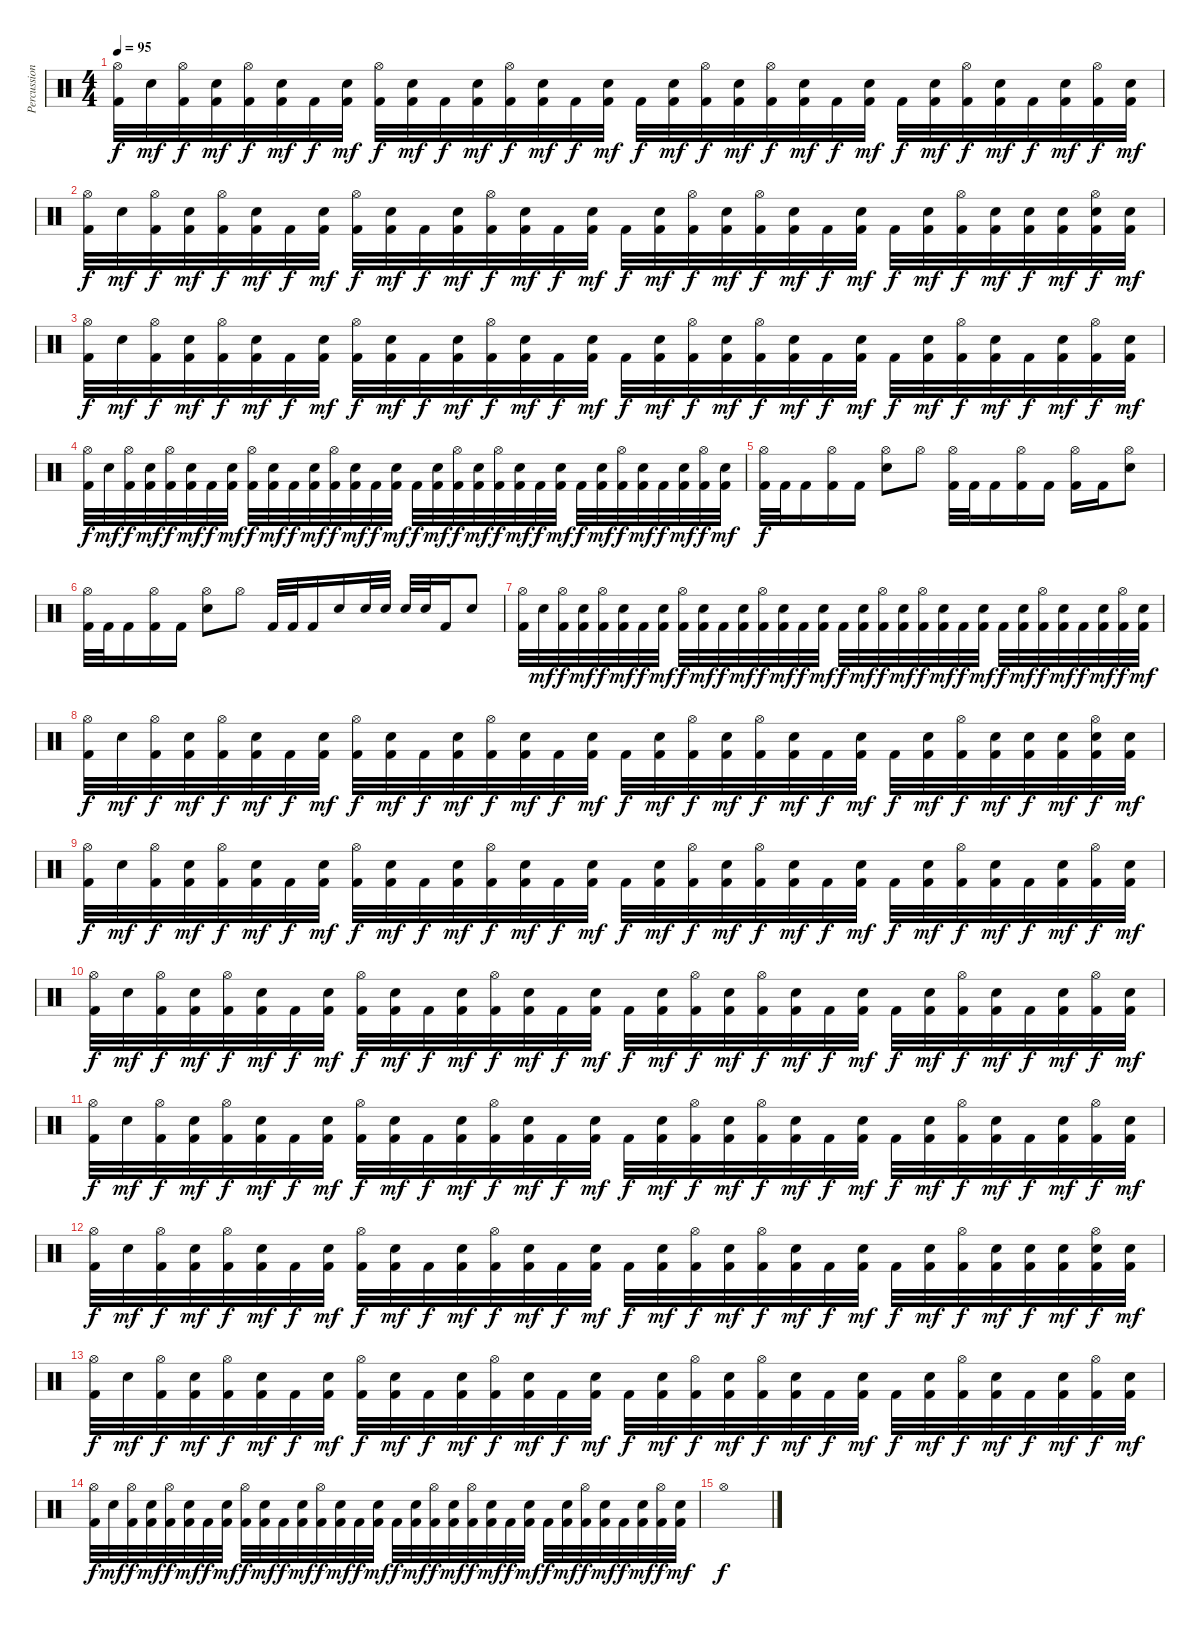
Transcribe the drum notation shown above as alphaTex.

\track ("Percussion" "Percussion") {instrument percussion}
\staff {score}
\articulation defaults
\ts (4 4)
\tempo 95
\clef neutral
\ks c
("Hi-Hat (open)" "Kick (hit) 2").32{dy f} "Electric Snare (hit)".32{dy mf} ("Hi-Hat (open)" "Kick (hit) 2").32{dy f} ("Electric Snare (hit)" "Kick (hit) 2").32{dy mf} ("Hi-Hat (open)" "Kick (hit) 2").32{dy f} ("Electric Snare (hit)" "Kick (hit) 2").32{dy mf} "Kick (hit) 2".32{dy f} ("Electric Snare (hit)" "Kick (hit) 2").32{dy mf} ("Hi-Hat (open)" "Kick (hit) 2").32{dy f} ("Electric Snare (hit)" "Kick (hit) 2").32{dy mf} "Kick (hit) 2".32{dy f} ("Electric Snare (hit)" "Kick (hit) 2").32{dy mf} ("Hi-Hat (open)" "Kick (hit) 2").32{dy f} ("Electric Snare (hit)" "Kick (hit) 2").32{dy mf} "Kick (hit) 2".32{dy f} ("Electric Snare (hit)" "Kick (hit) 2").32{dy mf} "Kick (hit) 2".32{dy f} ("Electric Snare (hit)" "Kick (hit) 2").32{dy mf} ("Hi-Hat (open)" "Kick (hit) 2").32{dy f} ("Electric Snare (hit)" "Kick (hit) 2").32{dy mf} ("Hi-Hat (open)" "Kick (hit) 2").32{dy f} ("Electric Snare (hit)" "Kick (hit) 2").32{dy mf} "Kick (hit) 2".32{dy f} ("Electric Snare (hit)" "Kick (hit) 2").32{dy mf} "Kick (hit) 2".32{dy f} ("Electric Snare (hit)" "Kick (hit) 2").32{dy mf} ("Hi-Hat (open)" "Kick (hit) 2").32{dy f} ("Electric Snare (hit)" "Kick (hit) 2").32{dy mf} "Kick (hit) 2".32{dy f} ("Electric Snare (hit)" "Kick (hit) 2").32{dy mf} ("Hi-Hat (open)" "Kick (hit) 2").32{dy f} ("Electric Snare (hit)" "Kick (hit) 2").32{dy mf} |
("Hi-Hat (open)" "Kick (hit) 2").32{dy f} "Electric Snare (hit)".32{dy mf} ("Hi-Hat (open)" "Kick (hit) 2").32{dy f} ("Electric Snare (hit)" "Kick (hit) 2").32{dy mf} ("Hi-Hat (open)" "Kick (hit) 2").32{dy f} ("Electric Snare (hit)" "Kick (hit) 2").32{dy mf} "Kick (hit) 2".32{dy f} ("Electric Snare (hit)" "Kick (hit) 2").32{dy mf} ("Hi-Hat (open)" "Kick (hit) 2").32{dy f} ("Electric Snare (hit)" "Kick (hit) 2").32{dy mf} "Kick (hit) 2".32{dy f} ("Electric Snare (hit)" "Kick (hit) 2").32{dy mf} ("Hi-Hat (open)" "Kick (hit) 2").32{dy f} ("Electric Snare (hit)" "Kick (hit) 2").32{dy mf} "Kick (hit) 2".32{dy f} ("Electric Snare (hit)" "Kick (hit) 2").32{dy mf} "Kick (hit) 2".32{dy f} ("Electric Snare (hit)" "Kick (hit) 2").32{dy mf} ("Hi-Hat (open)" "Kick (hit) 2").32{dy f} ("Electric Snare (hit)" "Kick (hit) 2").32{dy mf} ("Hi-Hat (open)" "Kick (hit) 2").32{dy f} ("Electric Snare (hit)" "Kick (hit) 2").32{dy mf} "Kick (hit) 2".32{dy f} ("Electric Snare (hit)" "Kick (hit) 2").32{dy mf} "Kick (hit) 2".32{dy f} ("Electric Snare (hit)" "Kick (hit) 2").32{dy mf} ("Hi-Hat (open)" "Kick (hit) 2").32{dy f} ("Electric Snare (hit)" "Kick (hit) 2").32{dy mf} ("Electric Snare (hit)" "Kick (hit) 2").32{dy f} ("Electric Snare (hit)" "Kick (hit) 2").32{dy mf} ("Hi-Hat (open)" "Electric Snare (hit)" "Kick (hit) 2").32{dy f} ("Electric Snare (hit)" "Kick (hit) 2").32{dy mf} |
("Hi-Hat (open)" "Kick (hit) 2").32{dy f} "Electric Snare (hit)".32{dy mf} ("Hi-Hat (open)" "Kick (hit) 2").32{dy f} ("Electric Snare (hit)" "Kick (hit) 2").32{dy mf} ("Hi-Hat (open)" "Kick (hit) 2").32{dy f} ("Electric Snare (hit)" "Kick (hit) 2").32{dy mf} "Kick (hit) 2".32{dy f} ("Electric Snare (hit)" "Kick (hit) 2").32{dy mf} ("Hi-Hat (open)" "Kick (hit) 2").32{dy f} ("Electric Snare (hit)" "Kick (hit) 2").32{dy mf} "Kick (hit) 2".32{dy f} ("Electric Snare (hit)" "Kick (hit) 2").32{dy mf} ("Hi-Hat (open)" "Kick (hit) 2").32{dy f} ("Electric Snare (hit)" "Kick (hit) 2").32{dy mf} "Kick (hit) 2".32{dy f} ("Electric Snare (hit)" "Kick (hit) 2").32{dy mf} "Kick (hit) 2".32{dy f} ("Electric Snare (hit)" "Kick (hit) 2").32{dy mf} ("Hi-Hat (open)" "Kick (hit) 2").32{dy f} ("Electric Snare (hit)" "Kick (hit) 2").32{dy mf} ("Hi-Hat (open)" "Kick (hit) 2").32{dy f} ("Electric Snare (hit)" "Kick (hit) 2").32{dy mf} "Kick (hit) 2".32{dy f} ("Electric Snare (hit)" "Kick (hit) 2").32{dy mf} "Kick (hit) 2".32{dy f} ("Electric Snare (hit)" "Kick (hit) 2").32{dy mf} ("Hi-Hat (open)" "Kick (hit) 2").32{dy f} ("Electric Snare (hit)" "Kick (hit) 2").32{dy mf} "Kick (hit) 2".32{dy f} ("Electric Snare (hit)" "Kick (hit) 2").32{dy mf} ("Hi-Hat (open)" "Kick (hit) 2").32{dy f} ("Electric Snare (hit)" "Kick (hit) 2").32{dy mf} |
("Hi-Hat (open)" "Kick (hit) 2").32{dy f} "Electric Snare (hit)".32{dy mf} ("Hi-Hat (open)" "Kick (hit) 2").32{dy f} ("Electric Snare (hit)" "Kick (hit) 2").32{dy mf} ("Hi-Hat (open)" "Kick (hit) 2").32{dy f} ("Electric Snare (hit)" "Kick (hit) 2").32{dy mf} "Kick (hit) 2".32{dy f} ("Electric Snare (hit)" "Kick (hit) 2").32{dy mf} ("Hi-Hat (open)" "Kick (hit) 2").32{dy f} ("Electric Snare (hit)" "Kick (hit) 2").32{dy mf} "Kick (hit) 2".32{dy f} ("Electric Snare (hit)" "Kick (hit) 2").32{dy mf} ("Hi-Hat (open)" "Kick (hit) 2").32{dy f} ("Electric Snare (hit)" "Kick (hit) 2").32{dy mf} "Kick (hit) 2".32{dy f} ("Electric Snare (hit)" "Kick (hit) 2").32{dy mf} "Kick (hit) 2".32{dy f} ("Electric Snare (hit)" "Kick (hit) 2").32{dy mf} ("Hi-Hat (open)" "Kick (hit) 2").32{dy f} ("Electric Snare (hit)" "Kick (hit) 2").32{dy mf} ("Hi-Hat (open)" "Kick (hit) 2").32{dy f} ("Electric Snare (hit)" "Kick (hit) 2").32{dy mf} "Kick (hit) 2".32{dy f} ("Electric Snare (hit)" "Kick (hit) 2").32{dy mf} "Kick (hit) 2".32{dy f} ("Electric Snare (hit)" "Kick (hit) 2").32{dy mf} ("Hi-Hat (open)" "Kick (hit) 2").32{dy f} ("Electric Snare (hit)" "Kick (hit) 2").32{dy mf} "Kick (hit) 2".32{dy f} ("Electric Snare (hit)" "Kick (hit) 2").32{dy mf} ("Hi-Hat (open)" "Kick (hit) 2").32{dy f} ("Electric Snare (hit)" "Kick (hit) 2").32{dy mf} |
("Hi-Hat (open)" "Kick (hit) 2").32{dy f} "Kick (hit) 2".32 "Kick (hit) 2".16 ("Hi-Hat (open)" "Kick (hit) 2").16 "Kick (hit) 2".16 ("Hi-Hat (open)" "Electric Snare (hit)").8 "Hi-Hat (open)".8 ("Hi-Hat (open)" "Kick (hit) 2").32 "Kick (hit) 2".32 "Kick (hit) 2".16 ("Hi-Hat (open)" "Kick (hit) 2").16 "Kick (hit) 2".16 ("Hi-Hat (open)" "Kick (hit) 2").16 "Kick (hit) 2".16 ("Hi-Hat (open)" "Electric Snare (hit)").8 |
("Hi-Hat (open)" "Kick (hit) 2").32 "Kick (hit) 2".32 "Kick (hit) 2".16 ("Hi-Hat (open)" "Kick (hit) 2").16 "Kick (hit) 2".16 ("Hi-Hat (open)" "Electric Snare (hit)").8 "Hi-Hat (open)".8 "Kick (hit) 2".32 "Kick (hit) 2".32 "Kick (hit) 2".16 "Electric Snare (hit)".16 "Electric Snare (hit)".32 "Electric Snare (hit)".32 "Electric Snare (hit)".32 "Electric Snare (hit)".32 "Kick (hit) 2".16 "Electric Snare (hit)".8 |
("Hi-Hat (open)" "Kick (hit) 2").32 "Electric Snare (hit)".32{dy mf} ("Hi-Hat (open)" "Kick (hit) 2").32{dy f} ("Electric Snare (hit)" "Kick (hit) 2").32{dy mf} ("Hi-Hat (open)" "Kick (hit) 2").32{dy f} ("Electric Snare (hit)" "Kick (hit) 2").32{dy mf} "Kick (hit) 2".32{dy f} ("Electric Snare (hit)" "Kick (hit) 2").32{dy mf} ("Hi-Hat (open)" "Kick (hit) 2").32{dy f} ("Electric Snare (hit)" "Kick (hit) 2").32{dy mf} "Kick (hit) 2".32{dy f} ("Electric Snare (hit)" "Kick (hit) 2").32{dy mf} ("Hi-Hat (open)" "Kick (hit) 2").32{dy f} ("Electric Snare (hit)" "Kick (hit) 2").32{dy mf} "Kick (hit) 2".32{dy f} ("Electric Snare (hit)" "Kick (hit) 2").32{dy mf} "Kick (hit) 2".32{dy f} ("Electric Snare (hit)" "Kick (hit) 2").32{dy mf} ("Hi-Hat (open)" "Kick (hit) 2").32{dy f} ("Electric Snare (hit)" "Kick (hit) 2").32{dy mf} ("Hi-Hat (open)" "Kick (hit) 2").32{dy f} ("Electric Snare (hit)" "Kick (hit) 2").32{dy mf} "Kick (hit) 2".32{dy f} ("Electric Snare (hit)" "Kick (hit) 2").32{dy mf} "Kick (hit) 2".32{dy f} ("Electric Snare (hit)" "Kick (hit) 2").32{dy mf} ("Hi-Hat (open)" "Kick (hit) 2").32{dy f} ("Electric Snare (hit)" "Kick (hit) 2").32{dy mf} "Kick (hit) 2".32{dy f} ("Electric Snare (hit)" "Kick (hit) 2").32{dy mf} ("Hi-Hat (open)" "Kick (hit) 2").32{dy f} ("Electric Snare (hit)" "Kick (hit) 2").32{dy mf} |
("Hi-Hat (open)" "Kick (hit) 2").32{dy f} "Electric Snare (hit)".32{dy mf} ("Hi-Hat (open)" "Kick (hit) 2").32{dy f} ("Electric Snare (hit)" "Kick (hit) 2").32{dy mf} ("Hi-Hat (open)" "Kick (hit) 2").32{dy f} ("Electric Snare (hit)" "Kick (hit) 2").32{dy mf} "Kick (hit) 2".32{dy f} ("Electric Snare (hit)" "Kick (hit) 2").32{dy mf} ("Hi-Hat (open)" "Kick (hit) 2").32{dy f} ("Electric Snare (hit)" "Kick (hit) 2").32{dy mf} "Kick (hit) 2".32{dy f} ("Electric Snare (hit)" "Kick (hit) 2").32{dy mf} ("Hi-Hat (open)" "Kick (hit) 2").32{dy f} ("Electric Snare (hit)" "Kick (hit) 2").32{dy mf} "Kick (hit) 2".32{dy f} ("Electric Snare (hit)" "Kick (hit) 2").32{dy mf} "Kick (hit) 2".32{dy f} ("Electric Snare (hit)" "Kick (hit) 2").32{dy mf} ("Hi-Hat (open)" "Kick (hit) 2").32{dy f} ("Electric Snare (hit)" "Kick (hit) 2").32{dy mf} ("Hi-Hat (open)" "Kick (hit) 2").32{dy f} ("Electric Snare (hit)" "Kick (hit) 2").32{dy mf} "Kick (hit) 2".32{dy f} ("Electric Snare (hit)" "Kick (hit) 2").32{dy mf} "Kick (hit) 2".32{dy f} ("Electric Snare (hit)" "Kick (hit) 2").32{dy mf} ("Hi-Hat (open)" "Kick (hit) 2").32{dy f} ("Electric Snare (hit)" "Kick (hit) 2").32{dy mf} ("Electric Snare (hit)" "Kick (hit) 2").32{dy f} ("Electric Snare (hit)" "Kick (hit) 2").32{dy mf} ("Hi-Hat (open)" "Electric Snare (hit)" "Kick (hit) 2").32{dy f} ("Electric Snare (hit)" "Kick (hit) 2").32{dy mf} |
("Hi-Hat (open)" "Kick (hit) 2").32{dy f} "Electric Snare (hit)".32{dy mf} ("Hi-Hat (open)" "Kick (hit) 2").32{dy f} ("Electric Snare (hit)" "Kick (hit) 2").32{dy mf} ("Hi-Hat (open)" "Kick (hit) 2").32{dy f} ("Electric Snare (hit)" "Kick (hit) 2").32{dy mf} "Kick (hit) 2".32{dy f} ("Electric Snare (hit)" "Kick (hit) 2").32{dy mf} ("Hi-Hat (open)" "Kick (hit) 2").32{dy f} ("Electric Snare (hit)" "Kick (hit) 2").32{dy mf} "Kick (hit) 2".32{dy f} ("Electric Snare (hit)" "Kick (hit) 2").32{dy mf} ("Hi-Hat (open)" "Kick (hit) 2").32{dy f} ("Electric Snare (hit)" "Kick (hit) 2").32{dy mf} "Kick (hit) 2".32{dy f} ("Electric Snare (hit)" "Kick (hit) 2").32{dy mf} "Kick (hit) 2".32{dy f} ("Electric Snare (hit)" "Kick (hit) 2").32{dy mf} ("Hi-Hat (open)" "Kick (hit) 2").32{dy f} ("Electric Snare (hit)" "Kick (hit) 2").32{dy mf} ("Hi-Hat (open)" "Kick (hit) 2").32{dy f} ("Electric Snare (hit)" "Kick (hit) 2").32{dy mf} "Kick (hit) 2".32{dy f} ("Electric Snare (hit)" "Kick (hit) 2").32{dy mf} "Kick (hit) 2".32{dy f} ("Electric Snare (hit)" "Kick (hit) 2").32{dy mf} ("Hi-Hat (open)" "Kick (hit) 2").32{dy f} ("Electric Snare (hit)" "Kick (hit) 2").32{dy mf} "Kick (hit) 2".32{dy f} ("Electric Snare (hit)" "Kick (hit) 2").32{dy mf} ("Hi-Hat (open)" "Kick (hit) 2").32{dy f} ("Electric Snare (hit)" "Kick (hit) 2").32{dy mf} |
("Hi-Hat (open)" "Kick (hit) 2").32{dy f} "Electric Snare (hit)".32{dy mf} ("Hi-Hat (open)" "Kick (hit) 2").32{dy f} ("Electric Snare (hit)" "Kick (hit) 2").32{dy mf} ("Hi-Hat (open)" "Kick (hit) 2").32{dy f} ("Electric Snare (hit)" "Kick (hit) 2").32{dy mf} "Kick (hit) 2".32{dy f} ("Electric Snare (hit)" "Kick (hit) 2").32{dy mf} ("Hi-Hat (open)" "Kick (hit) 2").32{dy f} ("Electric Snare (hit)" "Kick (hit) 2").32{dy mf} "Kick (hit) 2".32{dy f} ("Electric Snare (hit)" "Kick (hit) 2").32{dy mf} ("Hi-Hat (open)" "Kick (hit) 2").32{dy f} ("Electric Snare (hit)" "Kick (hit) 2").32{dy mf} "Kick (hit) 2".32{dy f} ("Electric Snare (hit)" "Kick (hit) 2").32{dy mf} "Kick (hit) 2".32{dy f} ("Electric Snare (hit)" "Kick (hit) 2").32{dy mf} ("Hi-Hat (open)" "Kick (hit) 2").32{dy f} ("Electric Snare (hit)" "Kick (hit) 2").32{dy mf} ("Hi-Hat (open)" "Kick (hit) 2").32{dy f} ("Electric Snare (hit)" "Kick (hit) 2").32{dy mf} "Kick (hit) 2".32{dy f} ("Electric Snare (hit)" "Kick (hit) 2").32{dy mf} "Kick (hit) 2".32{dy f} ("Electric Snare (hit)" "Kick (hit) 2").32{dy mf} ("Hi-Hat (open)" "Kick (hit) 2").32{dy f} ("Electric Snare (hit)" "Kick (hit) 2").32{dy mf} "Kick (hit) 2".32{dy f} ("Electric Snare (hit)" "Kick (hit) 2").32{dy mf} ("Hi-Hat (open)" "Kick (hit) 2").32{dy f} ("Electric Snare (hit)" "Kick (hit) 2").32{dy mf} |
("Hi-Hat (open)" "Kick (hit) 2").32{dy f} "Electric Snare (hit)".32{dy mf} ("Hi-Hat (open)" "Kick (hit) 2").32{dy f} ("Electric Snare (hit)" "Kick (hit) 2").32{dy mf} ("Hi-Hat (open)" "Kick (hit) 2").32{dy f} ("Electric Snare (hit)" "Kick (hit) 2").32{dy mf} "Kick (hit) 2".32{dy f} ("Electric Snare (hit)" "Kick (hit) 2").32{dy mf} ("Hi-Hat (open)" "Kick (hit) 2").32{dy f} ("Electric Snare (hit)" "Kick (hit) 2").32{dy mf} "Kick (hit) 2".32{dy f} ("Electric Snare (hit)" "Kick (hit) 2").32{dy mf} ("Hi-Hat (open)" "Kick (hit) 2").32{dy f} ("Electric Snare (hit)" "Kick (hit) 2").32{dy mf} "Kick (hit) 2".32{dy f} ("Electric Snare (hit)" "Kick (hit) 2").32{dy mf} "Kick (hit) 2".32{dy f} ("Electric Snare (hit)" "Kick (hit) 2").32{dy mf} ("Hi-Hat (open)" "Kick (hit) 2").32{dy f} ("Electric Snare (hit)" "Kick (hit) 2").32{dy mf} ("Hi-Hat (open)" "Kick (hit) 2").32{dy f} ("Electric Snare (hit)" "Kick (hit) 2").32{dy mf} "Kick (hit) 2".32{dy f} ("Electric Snare (hit)" "Kick (hit) 2").32{dy mf} "Kick (hit) 2".32{dy f} ("Electric Snare (hit)" "Kick (hit) 2").32{dy mf} ("Hi-Hat (open)" "Kick (hit) 2").32{dy f} ("Electric Snare (hit)" "Kick (hit) 2").32{dy mf} "Kick (hit) 2".32{dy f} ("Electric Snare (hit)" "Kick (hit) 2").32{dy mf} ("Hi-Hat (open)" "Kick (hit) 2").32{dy f} ("Electric Snare (hit)" "Kick (hit) 2").32{dy mf} |
("Hi-Hat (open)" "Kick (hit) 2").32{dy f} "Electric Snare (hit)".32{dy mf} ("Hi-Hat (open)" "Kick (hit) 2").32{dy f} ("Electric Snare (hit)" "Kick (hit) 2").32{dy mf} ("Hi-Hat (open)" "Kick (hit) 2").32{dy f} ("Electric Snare (hit)" "Kick (hit) 2").32{dy mf} "Kick (hit) 2".32{dy f} ("Electric Snare (hit)" "Kick (hit) 2").32{dy mf} ("Hi-Hat (open)" "Kick (hit) 2").32{dy f} ("Electric Snare (hit)" "Kick (hit) 2").32{dy mf} "Kick (hit) 2".32{dy f} ("Electric Snare (hit)" "Kick (hit) 2").32{dy mf} ("Hi-Hat (open)" "Kick (hit) 2").32{dy f} ("Electric Snare (hit)" "Kick (hit) 2").32{dy mf} "Kick (hit) 2".32{dy f} ("Electric Snare (hit)" "Kick (hit) 2").32{dy mf} "Kick (hit) 2".32{dy f} ("Electric Snare (hit)" "Kick (hit) 2").32{dy mf} ("Hi-Hat (open)" "Kick (hit) 2").32{dy f} ("Electric Snare (hit)" "Kick (hit) 2").32{dy mf} ("Hi-Hat (open)" "Kick (hit) 2").32{dy f} ("Electric Snare (hit)" "Kick (hit) 2").32{dy mf} "Kick (hit) 2".32{dy f} ("Electric Snare (hit)" "Kick (hit) 2").32{dy mf} "Kick (hit) 2".32{dy f} ("Electric Snare (hit)" "Kick (hit) 2").32{dy mf} ("Hi-Hat (open)" "Kick (hit) 2").32{dy f} ("Electric Snare (hit)" "Kick (hit) 2").32{dy mf} ("Electric Snare (hit)" "Kick (hit) 2").32{dy f} ("Electric Snare (hit)" "Kick (hit) 2").32{dy mf} ("Hi-Hat (open)" "Electric Snare (hit)" "Kick (hit) 2").32{dy f} ("Electric Snare (hit)" "Kick (hit) 2").32{dy mf} |
("Hi-Hat (open)" "Kick (hit) 2").32{dy f} "Electric Snare (hit)".32{dy mf} ("Hi-Hat (open)" "Kick (hit) 2").32{dy f} ("Electric Snare (hit)" "Kick (hit) 2").32{dy mf} ("Hi-Hat (open)" "Kick (hit) 2").32{dy f} ("Electric Snare (hit)" "Kick (hit) 2").32{dy mf} "Kick (hit) 2".32{dy f} ("Electric Snare (hit)" "Kick (hit) 2").32{dy mf} ("Hi-Hat (open)" "Kick (hit) 2").32{dy f} ("Electric Snare (hit)" "Kick (hit) 2").32{dy mf} "Kick (hit) 2".32{dy f} ("Electric Snare (hit)" "Kick (hit) 2").32{dy mf} ("Hi-Hat (open)" "Kick (hit) 2").32{dy f} ("Electric Snare (hit)" "Kick (hit) 2").32{dy mf} "Kick (hit) 2".32{dy f} ("Electric Snare (hit)" "Kick (hit) 2").32{dy mf} "Kick (hit) 2".32{dy f} ("Electric Snare (hit)" "Kick (hit) 2").32{dy mf} ("Hi-Hat (open)" "Kick (hit) 2").32{dy f} ("Electric Snare (hit)" "Kick (hit) 2").32{dy mf} ("Hi-Hat (open)" "Kick (hit) 2").32{dy f} ("Electric Snare (hit)" "Kick (hit) 2").32{dy mf} "Kick (hit) 2".32{dy f} ("Electric Snare (hit)" "Kick (hit) 2").32{dy mf} "Kick (hit) 2".32{dy f} ("Electric Snare (hit)" "Kick (hit) 2").32{dy mf} ("Hi-Hat (open)" "Kick (hit) 2").32{dy f} ("Electric Snare (hit)" "Kick (hit) 2").32{dy mf} "Kick (hit) 2".32{dy f} ("Electric Snare (hit)" "Kick (hit) 2").32{dy mf} ("Hi-Hat (open)" "Kick (hit) 2").32{dy f} ("Electric Snare (hit)" "Kick (hit) 2").32{dy mf} |
("Hi-Hat (open)" "Kick (hit) 2").32{dy f} "Electric Snare (hit)".32{dy mf} ("Hi-Hat (open)" "Kick (hit) 2").32{dy f} ("Electric Snare (hit)" "Kick (hit) 2").32{dy mf} ("Hi-Hat (open)" "Kick (hit) 2").32{dy f} ("Electric Snare (hit)" "Kick (hit) 2").32{dy mf} "Kick (hit) 2".32{dy f} ("Electric Snare (hit)" "Kick (hit) 2").32{dy mf} ("Hi-Hat (open)" "Kick (hit) 2").32{dy f} ("Electric Snare (hit)" "Kick (hit) 2").32{dy mf} "Kick (hit) 2".32{dy f} ("Electric Snare (hit)" "Kick (hit) 2").32{dy mf} ("Hi-Hat (open)" "Kick (hit) 2").32{dy f} ("Electric Snare (hit)" "Kick (hit) 2").32{dy mf} "Kick (hit) 2".32{dy f} ("Electric Snare (hit)" "Kick (hit) 2").32{dy mf} "Kick (hit) 2".32{dy f} ("Electric Snare (hit)" "Kick (hit) 2").32{dy mf} ("Hi-Hat (open)" "Kick (hit) 2").32{dy f} ("Electric Snare (hit)" "Kick (hit) 2").32{dy mf} ("Hi-Hat (open)" "Kick (hit) 2").32{dy f} ("Electric Snare (hit)" "Kick (hit) 2").32{dy mf} "Kick (hit) 2".32{dy f} ("Electric Snare (hit)" "Kick (hit) 2").32{dy mf} "Kick (hit) 2".32{dy f} ("Electric Snare (hit)" "Kick (hit) 2").32{dy mf} ("Hi-Hat (open)" "Kick (hit) 2").32{dy f} ("Electric Snare (hit)" "Kick (hit) 2").32{dy mf} "Kick (hit) 2".32{dy f} ("Electric Snare (hit)" "Kick (hit) 2").32{dy mf} ("Hi-Hat (open)" "Kick (hit) 2").32{dy f} ("Electric Snare (hit)" "Kick (hit) 2").32{dy mf} |
"Hi-Hat (open)".1{dy f}
